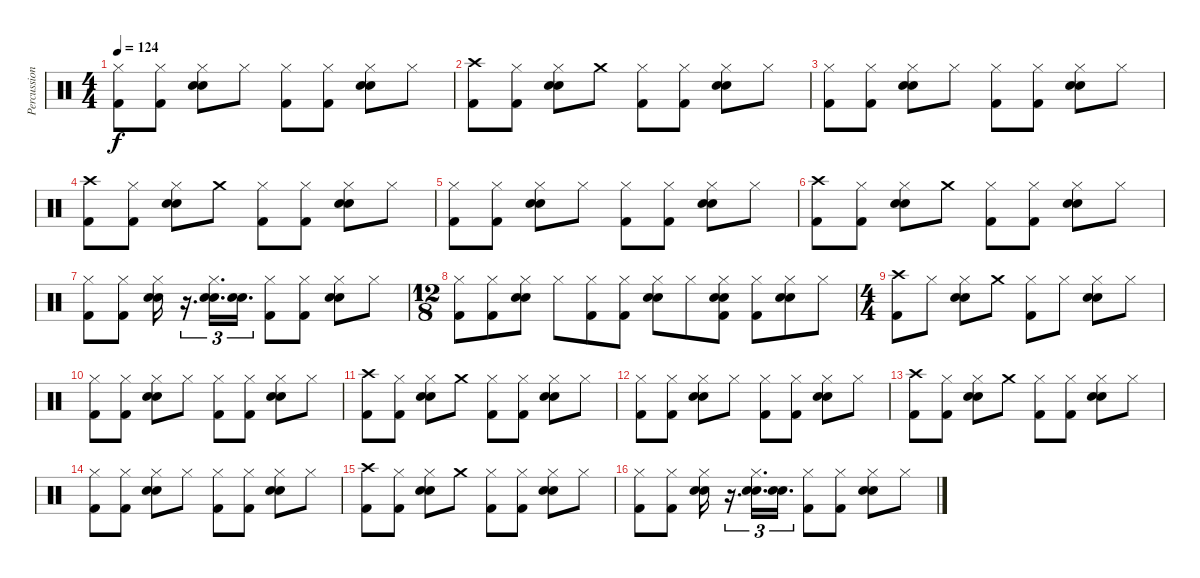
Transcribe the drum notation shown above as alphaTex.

\track ("Percussion" "Percussion") {instrument percussion}
\staff {score}
\articulation defaults
\ts (4 4)
\tempo 124
\clef neutral
\ks c
("Hi-Hat (closed)" "Kick (hit) 2").8{dy f} ("Hi-Hat (closed)" "Kick (hit) 2").8 ("Hi-Hat (closed)" "Snare (hit) 2" "Electric Snare (hit)").8 "Hi-Hat (closed)".8 ("Hi-Hat (closed)" "Kick (hit) 2").8 ("Hi-Hat (closed)" "Kick (hit) 2").8 ("Hi-Hat (closed)" "Snare (hit) 2" "Electric Snare (hit)").8 "Hi-Hat (closed)".8 |
("Crash high (hit)" "Kick (hit) 2").8 ("Hi-Hat (closed)" "Kick (hit) 2").8 ("Hi-Hat (closed)" "Snare (hit) 2" "Electric Snare (hit)").8 "Crash medium (hit)".8 ("Hi-Hat (closed)" "Kick (hit) 2").8 ("Hi-Hat (closed)" "Kick (hit) 2").8 ("Hi-Hat (closed)" "Snare (hit) 2" "Electric Snare (hit)").8 "Hi-Hat (closed)".8 |
("Hi-Hat (closed)" "Kick (hit) 2").8 ("Hi-Hat (closed)" "Kick (hit) 2").8 ("Hi-Hat (closed)" "Snare (hit) 2" "Electric Snare (hit)").8 "Hi-Hat (closed)".8 ("Hi-Hat (closed)" "Kick (hit) 2").8 ("Hi-Hat (closed)" "Kick (hit) 2").8 ("Hi-Hat (closed)" "Snare (hit) 2" "Electric Snare (hit)").8 "Hi-Hat (closed)".8 |
("Crash high (hit)" "Kick (hit) 2").8 ("Hi-Hat (closed)" "Kick (hit) 2").8 ("Hi-Hat (closed)" "Snare (hit) 2" "Electric Snare (hit)").8 "Crash medium (hit)".8 ("Hi-Hat (closed)" "Kick (hit) 2").8 ("Hi-Hat (closed)" "Kick (hit) 2").8 ("Hi-Hat (closed)" "Snare (hit) 2" "Electric Snare (hit)").8 "Hi-Hat (closed)".8 |
("Hi-Hat (closed)" "Kick (hit) 2").8 ("Hi-Hat (closed)" "Kick (hit) 2").8 ("Hi-Hat (closed)" "Snare (hit) 2" "Electric Snare (hit)").8 "Hi-Hat (closed)".8 ("Hi-Hat (closed)" "Kick (hit) 2").8 ("Hi-Hat (closed)" "Kick (hit) 2").8 ("Hi-Hat (closed)" "Snare (hit) 2" "Electric Snare (hit)").8 "Hi-Hat (closed)".8 |
("Crash high (hit)" "Kick (hit) 2").8 ("Hi-Hat (closed)" "Kick (hit) 2").8 ("Hi-Hat (closed)" "Snare (hit) 2" "Electric Snare (hit)").8 "Crash medium (hit)".8 ("Hi-Hat (closed)" "Kick (hit) 2").8 ("Hi-Hat (closed)" "Kick (hit) 2").8 ("Hi-Hat (closed)" "Snare (hit) 2" "Electric Snare (hit)").8 "Hi-Hat (closed)".8 |
("Hi-Hat (closed)" "Kick (hit) 2").8 ("Hi-Hat (closed)" "Kick (hit) 2").8 ("Hi-Hat (closed)" "Snare (hit) 2" "Electric Snare (hit)").16 r.16{d tu (3 2)} ("Hi-Hat (closed)" "Snare (hit) 2" "Electric Snare (hit)").16{d tu (3 2)} ("Snare (hit) 2" "Electric Snare (hit)").16{d tu (3 2)} ("Hi-Hat (closed)" "Kick (hit) 2").8 ("Hi-Hat (closed)" "Kick (hit) 2").8 ("Hi-Hat (closed)" "Snare (hit) 2" "Electric Snare (hit)").8 "Hi-Hat (closed)".8 |
\ts (12 8)
("Hi-Hat (closed)" "Kick (hit) 2").8 ("Hi-Hat (closed)" "Kick (hit) 2").8 ("Hi-Hat (closed)" "Snare (hit) 2" "Electric Snare (hit)").8 "Hi-Hat (closed)".8 ("Hi-Hat (closed)" "Kick (hit) 2").8 ("Hi-Hat (closed)" "Kick (hit) 2").8 ("Hi-Hat (closed)" "Snare (hit) 2" "Electric Snare (hit)").8 "Hi-Hat (closed)".8 ("Hi-Hat (closed)" "Snare (hit) 2" "Electric Snare (hit)" "Kick (hit) 2").8 ("Hi-Hat (closed)" "Kick (hit) 2").8 ("Hi-Hat (closed)" "Snare (hit) 2" "Electric Snare (hit)").8 "Hi-Hat (closed)".8 |
\ts (4 4)
("Crash high (hit)" "Kick (hit) 2").8 "Hi-Hat (closed)".8 ("Hi-Hat (closed)" "Snare (hit) 2" "Electric Snare (hit)").8 "Crash medium (hit)".8 ("Hi-Hat (closed)" "Kick (hit) 2").8 "Hi-Hat (closed)".8 ("Hi-Hat (closed)" "Snare (hit) 2" "Electric Snare (hit)").8 "Hi-Hat (closed)".8 |
("Hi-Hat (closed)" "Kick (hit) 2").8 ("Hi-Hat (closed)" "Kick (hit) 2").8 ("Hi-Hat (closed)" "Snare (hit) 2" "Electric Snare (hit)").8 "Hi-Hat (closed)".8 ("Hi-Hat (closed)" "Kick (hit) 2").8 ("Hi-Hat (closed)" "Kick (hit) 2").8 ("Hi-Hat (closed)" "Snare (hit) 2" "Electric Snare (hit)").8 "Hi-Hat (closed)".8 |
("Crash high (hit)" "Kick (hit) 2").8 ("Hi-Hat (closed)" "Kick (hit) 2").8 ("Hi-Hat (closed)" "Snare (hit) 2" "Electric Snare (hit)").8 "Crash medium (hit)".8 ("Hi-Hat (closed)" "Kick (hit) 2").8 ("Hi-Hat (closed)" "Kick (hit) 2").8 ("Hi-Hat (closed)" "Snare (hit) 2" "Electric Snare (hit)").8 "Hi-Hat (closed)".8 |
("Hi-Hat (closed)" "Kick (hit) 2").8 ("Hi-Hat (closed)" "Kick (hit) 2").8 ("Hi-Hat (closed)" "Snare (hit) 2" "Electric Snare (hit)").8 "Hi-Hat (closed)".8 ("Hi-Hat (closed)" "Kick (hit) 2").8 ("Hi-Hat (closed)" "Kick (hit) 2").8 ("Hi-Hat (closed)" "Snare (hit) 2" "Electric Snare (hit)").8 "Hi-Hat (closed)".8 |
("Crash high (hit)" "Kick (hit) 2").8 ("Hi-Hat (closed)" "Kick (hit) 2").8 ("Hi-Hat (closed)" "Snare (hit) 2" "Electric Snare (hit)").8 "Crash medium (hit)".8 ("Hi-Hat (closed)" "Kick (hit) 2").8 ("Hi-Hat (closed)" "Kick (hit) 2").8 ("Hi-Hat (closed)" "Snare (hit) 2" "Electric Snare (hit)").8 "Hi-Hat (closed)".8 |
("Hi-Hat (closed)" "Kick (hit) 2").8 ("Hi-Hat (closed)" "Kick (hit) 2").8 ("Hi-Hat (closed)" "Snare (hit) 2" "Electric Snare (hit)").8 "Hi-Hat (closed)".8 ("Hi-Hat (closed)" "Kick (hit) 2").8 ("Hi-Hat (closed)" "Kick (hit) 2").8 ("Hi-Hat (closed)" "Snare (hit) 2" "Electric Snare (hit)").8 "Hi-Hat (closed)".8 |
("Crash high (hit)" "Kick (hit) 2").8 ("Hi-Hat (closed)" "Kick (hit) 2").8 ("Hi-Hat (closed)" "Snare (hit) 2" "Electric Snare (hit)").8 "Crash medium (hit)".8 ("Hi-Hat (closed)" "Kick (hit) 2").8 ("Hi-Hat (closed)" "Kick (hit) 2").8 ("Hi-Hat (closed)" "Snare (hit) 2" "Electric Snare (hit)").8 "Hi-Hat (closed)".8 |
("Hi-Hat (closed)" "Kick (hit) 2").8 ("Hi-Hat (closed)" "Kick (hit) 2").8 ("Hi-Hat (closed)" "Snare (hit) 2" "Electric Snare (hit)").16 r.16{d tu (3 2)} ("Hi-Hat (closed)" "Snare (hit) 2" "Electric Snare (hit)").16{d tu (3 2)} ("Snare (hit) 2" "Electric Snare (hit)").16{d tu (3 2)} ("Hi-Hat (closed)" "Kick (hit) 2").8 ("Hi-Hat (closed)" "Kick (hit) 2").8 ("Hi-Hat (closed)" "Snare (hit) 2" "Electric Snare (hit)").8 "Hi-Hat (closed)".8
